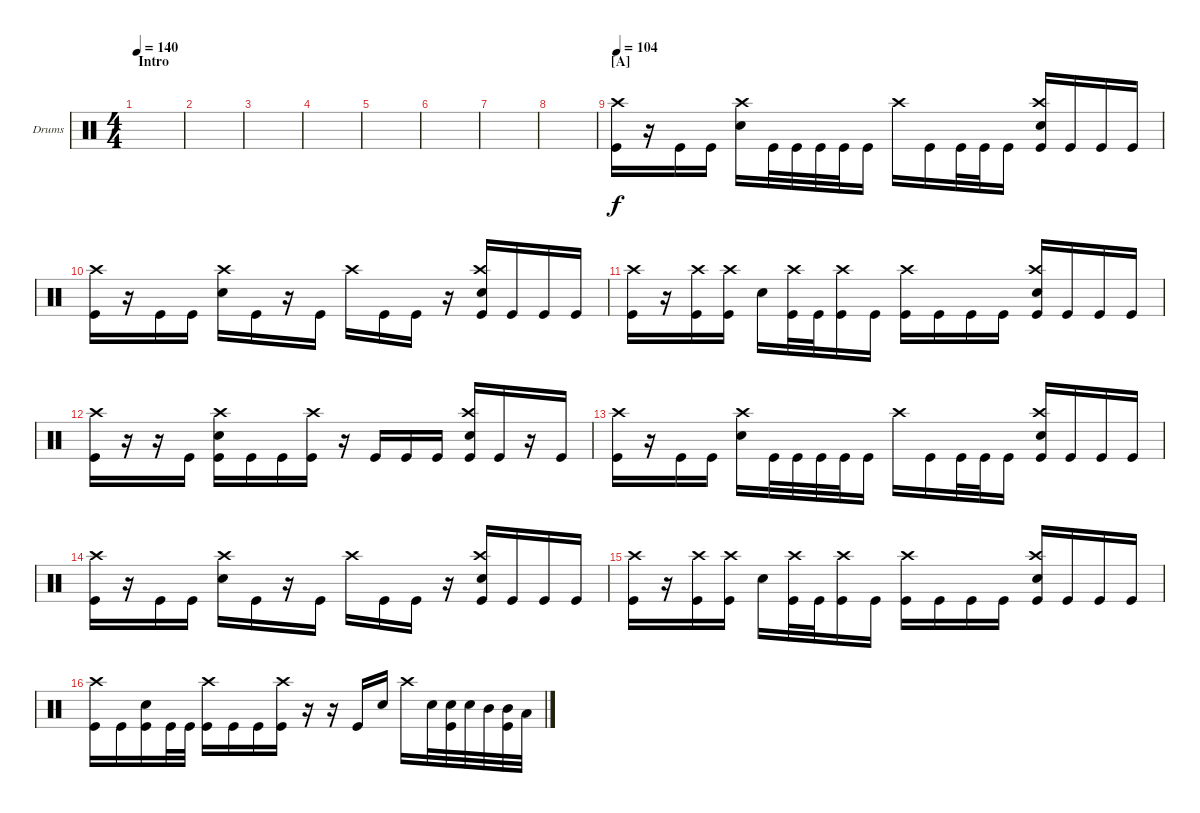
\bracketExtendMode groupsimilarinstruments
\firstSystemTrackNameOrientation horizontal
\otherSystemsTrackNameOrientation horizontal
\track ("Drumkit" "Drums") {instrument percussion}
\staff {score}
\articulation defaults
\ts (4 4)
\beaming (8 2 2 2 2)
\section ("" "Intro")
\tempo 140
\clef neutral
\ks c
|
|
|
|
|
|
|
|
\section ("A" "")
\tempo 104
("Kick (hit)" "Crash high (hit)").16 r.16 "Kick (hit)".16 "Kick (hit)".16 ("Snare (hit) 2" "Crash high (hit)").16 "Kick (hit)".32 "Kick (hit)".32 "Kick (hit)".32 "Kick (hit)".32 "Kick (hit)".16 "Crash high (hit)".16 "Kick (hit)".16 "Kick (hit)".32 "Kick (hit)".32 "Kick (hit)".16 ("Snare (hit) 2" "Kick (hit)" "Crash high (hit)").16 "Kick (hit)".16 "Kick (hit)".16 "Kick (hit)".16 |
("Kick (hit)" "Crash high (hit)").16 r.16 "Kick (hit)".16 "Kick (hit)".16 ("Snare (hit) 2" "Crash high (hit)").16 "Kick (hit)".16 r.16 "Kick (hit)".16 "Crash high (hit)".16 "Kick (hit)".16 "Kick (hit)".16 r.16 ("Snare (hit) 2" "Kick (hit)" "Crash high (hit)").16 "Kick (hit)".16 "Kick (hit)".16 "Kick (hit)".16 |
("Kick (hit)" "Crash high (hit)").16 r.16 ("Kick (hit)" "Crash high (hit)").16 ("Kick (hit)" "Crash high (hit)").16 "Snare (hit) 2".16 ("Kick (hit)" "Crash high (hit)").32 "Kick (hit)".32 ("Kick (hit)" "Crash high (hit)").16 "Kick (hit)".16 ("Kick (hit)" "Crash high (hit)").16 "Kick (hit)".16 "Kick (hit)".16 "Kick (hit)".16 ("Snare (hit) 2" "Kick (hit)" "Crash high (hit)").16 "Kick (hit)".16 "Kick (hit)".16 "Kick (hit)".16 |
("Kick (hit)" "Crash high (hit)").16 r.16 r.16 "Kick (hit)".16 ("Snare (hit) 2" "Kick (hit)" "Crash high (hit)").16 "Kick (hit)".16 "Kick (hit)".16 ("Kick (hit)" "Crash high (hit)").16 r.16 "Kick (hit)".16 "Kick (hit)".16 "Kick (hit)".16 ("Snare (hit) 2" "Kick (hit)" "Crash high (hit)").16 "Kick (hit)".16 r.16 "Kick (hit)".16 |
("Kick (hit)" "Crash high (hit)").16 r.16 "Kick (hit)".16 "Kick (hit)".16 ("Snare (hit) 2" "Crash high (hit)").16 "Kick (hit)".32 "Kick (hit)".32 "Kick (hit)".32 "Kick (hit)".32 "Kick (hit)".16 "Crash high (hit)".16 "Kick (hit)".16 "Kick (hit)".32 "Kick (hit)".32 "Kick (hit)".16 ("Snare (hit) 2" "Kick (hit)" "Crash high (hit)").16 "Kick (hit)".16 "Kick (hit)".16 "Kick (hit)".16 |
("Kick (hit)" "Crash high (hit)").16 r.16 "Kick (hit)".16 "Kick (hit)".16 ("Snare (hit) 2" "Crash high (hit)").16 "Kick (hit)".16 r.16 "Kick (hit)".16 "Crash high (hit)".16 "Kick (hit)".16 "Kick (hit)".16 r.16 ("Snare (hit) 2" "Kick (hit)" "Crash high (hit)").16 "Kick (hit)".16 "Kick (hit)".16 "Kick (hit)".16 |
("Kick (hit)" "Crash high (hit)").16 r.16 ("Kick (hit)" "Crash high (hit)").16 ("Kick (hit)" "Crash high (hit)").16 "Snare (hit) 2".16 ("Kick (hit)" "Crash high (hit)").32 "Kick (hit)".32 ("Kick (hit)" "Crash high (hit)").16 "Kick (hit)".16 ("Kick (hit)" "Crash high (hit)").16 "Kick (hit)".16 "Kick (hit)".16 "Kick (hit)".16 ("Snare (hit) 2" "Kick (hit)" "Crash high (hit)").16 "Kick (hit)".16 "Kick (hit)".16 "Kick (hit)".16 |
("Kick (hit)" "Crash high (hit)").16 "Kick (hit)".16 ("Kick (hit)" "Snare (hit) 2").16 "Kick (hit)".32 "Kick (hit)".32 ("Kick (hit)" "Crash high (hit)").16 "Kick (hit)".16 "Kick (hit)".16 ("Kick (hit)" "Crash high (hit)").16 r.16 r.16 "Kick (hit)".16 "Snare (hit) 2".16 "Crash high (hit)".16 "Snare (hit) 2".32 ("Snare (hit) 2" "Kick (hit)").32 "Snare (hit) 2".32 "Mid Tom (hit)".32 ("Kick (hit)" "Mid Tom (hit)").32 "Low Tom (hit)".32
